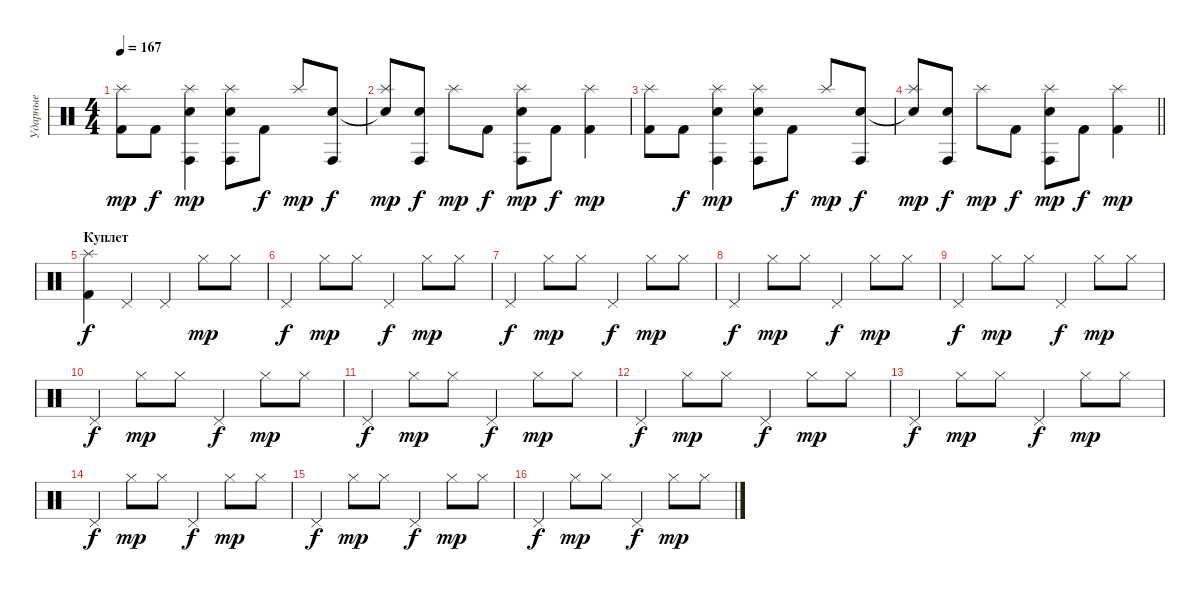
\track ("Ударные" "Ударные") {instrument percussion}
\staff {score}
\articulation defaults
\ts (4 4)
\tempo 167
\clef neutral
\ks c
("Splash (hit)" "Kick (hit) 2").8{dy mp} "Kick (hit) 2".8{dy f} ("Splash (hit)" "Conga high (hit)" "Electric Snare (hit)").4{dy mp} ("Splash (hit)" "Conga high (hit)" "Electric Snare (hit)").8 "Kick (hit) 2".8{dy f} "Splash (hit)".8{dy mp} ("Conga high (hit)" "Electric Snare (hit)").8{dy f} |
("Splash (hit)" "Electric Snare (hit)"{t}).8{dy mp} ("Conga high (hit)" "Electric Snare (hit)").8{dy f} "Splash (hit)".8{dy mp} "Kick (hit) 2".8{dy f} ("Splash (hit)" "Conga high (hit)" "Electric Snare (hit)").8{dy mp} "Kick (hit) 2".8{dy f} ("Splash (hit)" "Kick (hit) 2").4{dy mp} |
("Splash (hit)" "Kick (hit) 2").8 "Kick (hit) 2".8{dy f} ("Splash (hit)" "Conga high (hit)" "Electric Snare (hit)").4{dy mp} ("Splash (hit)" "Conga high (hit)" "Electric Snare (hit)").8 "Kick (hit) 2".8{dy f} "Splash (hit)".8{dy mp} ("Conga high (hit)" "Electric Snare (hit)").8{dy f} |
\barLineRight lightlight
("Splash (hit)" "Electric Snare (hit)"{t}).8{dy mp} ("Conga high (hit)" "Electric Snare (hit)").8{dy f} "Splash (hit)".8{dy mp} "Kick (hit) 2".8{dy f} ("Splash (hit)" "Conga high (hit)" "Electric Snare (hit)").8{dy mp} "Kick (hit) 2".8{dy f} ("Splash (hit)" "Kick (hit) 2").4{dy mp} |
\section ("" "Куплет")
("Splash (hit)" "Kick (hit) 2").4{dy f} "Pedal Hi-Hat (hit)".4 "Pedal Hi-Hat (hit)".4 "Hi-Hat (closed)".8{dy mp} "Hi-Hat (closed)".8 |
"Pedal Hi-Hat (hit)".4{dy f} "Hi-Hat (closed)".8{dy mp} "Hi-Hat (closed)".8 "Pedal Hi-Hat (hit)".4{dy f} "Hi-Hat (closed)".8{dy mp} "Hi-Hat (closed)".8 |
"Pedal Hi-Hat (hit)".4{dy f} "Hi-Hat (closed)".8{dy mp} "Hi-Hat (closed)".8 "Pedal Hi-Hat (hit)".4{dy f} "Hi-Hat (closed)".8{dy mp} "Hi-Hat (closed)".8 |
"Pedal Hi-Hat (hit)".4{dy f} "Hi-Hat (closed)".8{dy mp} "Hi-Hat (closed)".8 "Pedal Hi-Hat (hit)".4{dy f} "Hi-Hat (closed)".8{dy mp} "Hi-Hat (closed)".8 |
"Pedal Hi-Hat (hit)".4{dy f} "Hi-Hat (closed)".8{dy mp} "Hi-Hat (closed)".8 "Pedal Hi-Hat (hit)".4{dy f} "Hi-Hat (closed)".8{dy mp} "Hi-Hat (closed)".8 |
"Pedal Hi-Hat (hit)".4{dy f} "Hi-Hat (closed)".8{dy mp} "Hi-Hat (closed)".8 "Pedal Hi-Hat (hit)".4{dy f} "Hi-Hat (closed)".8{dy mp} "Hi-Hat (closed)".8 |
"Pedal Hi-Hat (hit)".4{dy f} "Hi-Hat (closed)".8{dy mp} "Hi-Hat (closed)".8 "Pedal Hi-Hat (hit)".4{dy f} "Hi-Hat (closed)".8{dy mp} "Hi-Hat (closed)".8 |
"Pedal Hi-Hat (hit)".4{dy f} "Hi-Hat (closed)".8{dy mp} "Hi-Hat (closed)".8 "Pedal Hi-Hat (hit)".4{dy f} "Hi-Hat (closed)".8{dy mp} "Hi-Hat (closed)".8 |
"Pedal Hi-Hat (hit)".4{dy f} "Hi-Hat (closed)".8{dy mp} "Hi-Hat (closed)".8 "Pedal Hi-Hat (hit)".4{dy f} "Hi-Hat (closed)".8{dy mp} "Hi-Hat (closed)".8 |
"Pedal Hi-Hat (hit)".4{dy f} "Hi-Hat (closed)".8{dy mp} "Hi-Hat (closed)".8 "Pedal Hi-Hat (hit)".4{dy f} "Hi-Hat (closed)".8{dy mp} "Hi-Hat (closed)".8 |
"Pedal Hi-Hat (hit)".4{dy f} "Hi-Hat (closed)".8{dy mp} "Hi-Hat (closed)".8 "Pedal Hi-Hat (hit)".4{dy f} "Hi-Hat (closed)".8{dy mp} "Hi-Hat (closed)".8 |
"Pedal Hi-Hat (hit)".4{dy f} "Hi-Hat (closed)".8{dy mp} "Hi-Hat (closed)".8 "Pedal Hi-Hat (hit)".4{dy f} "Hi-Hat (closed)".8{dy mp} "Hi-Hat (closed)".8
